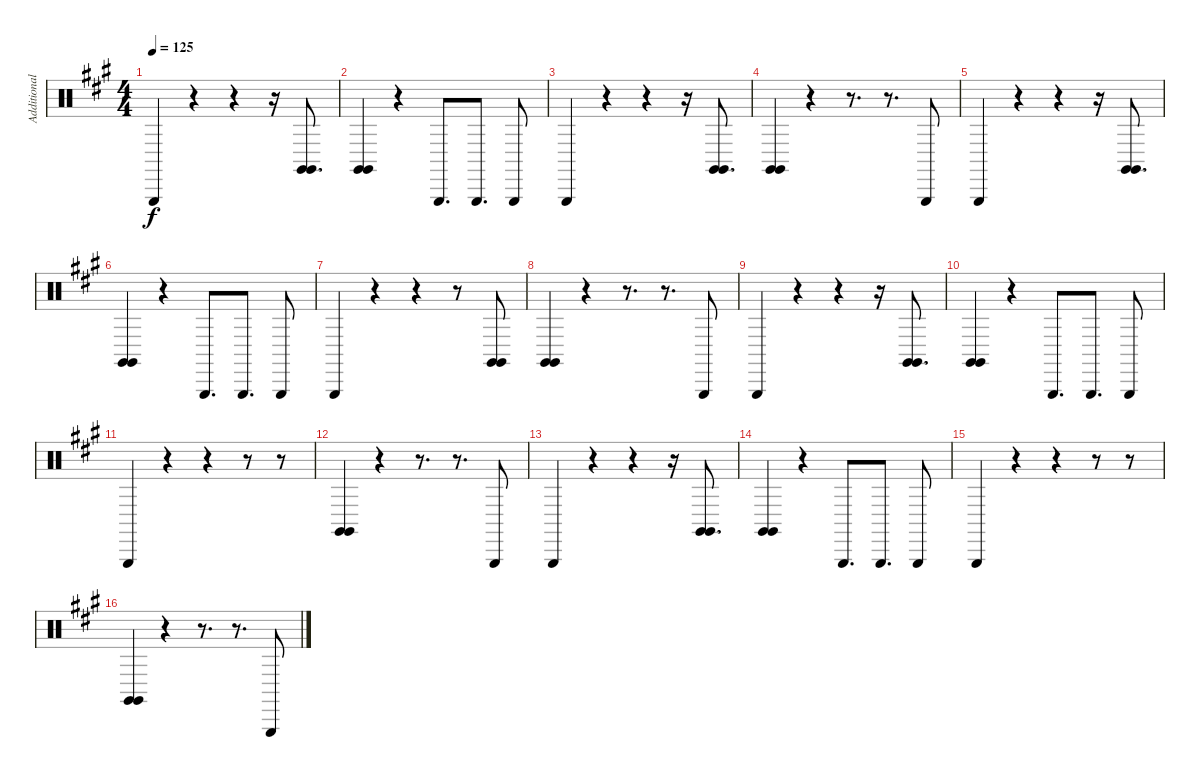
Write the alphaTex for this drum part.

\track ("Additional Percussion II" "Additional") {instrument percussion}
\staff {score}
\articulation defaults
\ts (4 4)
\tempo 125
\clef neutral
\ks a "Triangle (hit)".4{dy f}
r.4 r.4 r.16 ("Claves (hit)" "Claves (hit)").8{d} |
("Claves (hit)" "Claves (hit)").4 r.4 "Triangle (hit)".8{d} "Triangle (hit)".8{d} "Triangle (hit)".8 |
"Triangle (hit)".4 r.4 r.4 r.16 ("Claves (hit)" "Claves (hit)").8{d} |
("Claves (hit)" "Claves (hit)").4 r.4 r.8{d} r.8{d} "Triangle (hit)".8 |
"Triangle (hit)".4 r.4 r.4 r.16 ("Claves (hit)" "Claves (hit)").8{d} |
("Claves (hit)" "Claves (hit)").4 r.4 "Triangle (hit)".8{d} "Triangle (hit)".8{d} "Triangle (hit)".8 |
"Triangle (hit)".4 r.4 r.4 r.8 ("Claves (hit)" "Claves (hit)").8 |
("Claves (hit)" "Claves (hit)").4 r.4 r.8{d} r.8{d} "Triangle (hit)".8 |
"Triangle (hit)".4 r.4 r.4 r.16 ("Claves (hit)" "Claves (hit)").8{d} |
("Claves (hit)" "Claves (hit)").4 r.4 "Triangle (hit)".8{d} "Triangle (hit)".8{d} "Triangle (hit)".8 |
"Triangle (hit)".4 r.4 r.4 r.8 r.8 |
("Claves (hit)" "Claves (hit)").4 r.4 r.8{d} r.8{d} "Triangle (hit)".8 |
"Triangle (hit)".4 r.4 r.4 r.16 ("Claves (hit)" "Claves (hit)").8{d} |
("Claves (hit)" "Claves (hit)").4 r.4 "Triangle (hit)".8{d} "Triangle (hit)".8{d} "Triangle (hit)".8 |
"Triangle (hit)".4 r.4 r.4 r.8 r.8 |
("Claves (hit)" "Claves (hit)").4 r.4 r.8{d} r.8{d} "Triangle (hit)".8
